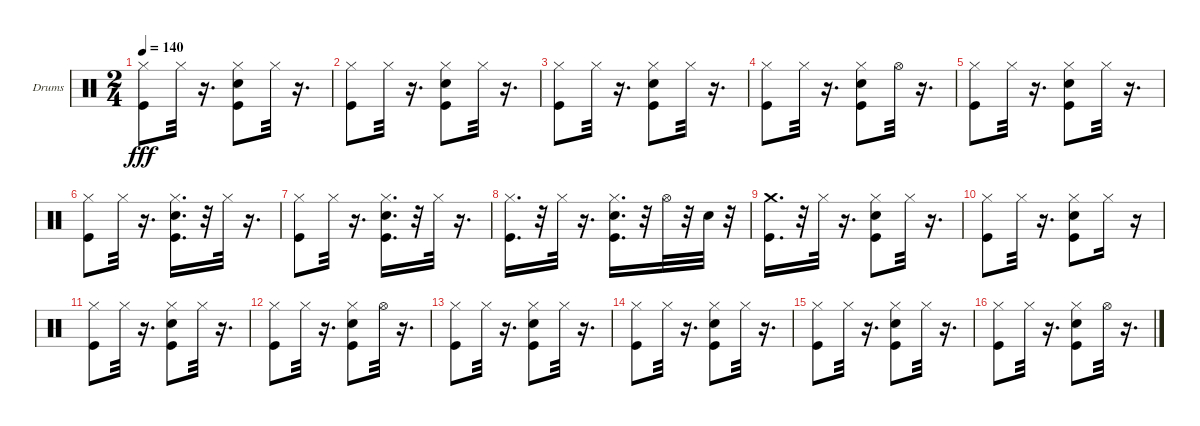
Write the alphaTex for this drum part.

\bracketExtendMode groupsimilarinstruments
\firstSystemTrackNameOrientation horizontal
\otherSystemsTrackNameOrientation horizontal
\track ("Ударные" "Drums") {instrument percussion}
\staff {score}
\articulation defaults
\ts (2 4)
\tempo 140
\clef neutral
\ks c
("Kick (hit)" "Hi-Hat (closed)").8{dy fff} "Hi-Hat (closed)".32 r.16{d} ("Snare (hit) 2" "Kick (hit)" "Hi-Hat (closed)").8 "Hi-Hat (closed)".32 r.16{d} |
("Kick (hit)" "Hi-Hat (closed)").8 "Hi-Hat (closed)".32 r.16{d} ("Kick (hit)" "Hi-Hat (closed)" "Snare (hit) 2").8 "Hi-Hat (closed)".32 r.16{d} |
("Kick (hit)" "Hi-Hat (closed)").8 "Hi-Hat (closed)".32 r.16{d} ("Kick (hit)" "Hi-Hat (closed)" "Snare (hit) 2").8 "Hi-Hat (closed)".32 r.16{d} |
("Kick (hit)" "Hi-Hat (closed)").8 "Hi-Hat (closed)".32 r.16{d} ("Snare (hit) 2" "Kick (hit)" "Hi-Hat (closed)").8 "Hi-Hat (open)".32 r.16{d} |
("Kick (hit)" "Hi-Hat (closed)").8 "Hi-Hat (closed)".32 r.16{d} ("Snare (hit) 2" "Kick (hit)" "Hi-Hat (closed)").8 "Hi-Hat (closed)".32 r.16{d} |
("Kick (hit)" "Hi-Hat (closed)").8 "Hi-Hat (closed)".32 r.16{d} ("Snare (hit) 2" "Kick (hit)" "Hi-Hat (closed)").16{d} r.32 "Hi-Hat (closed)".32 r.16{d} |
("Kick (hit)" "Hi-Hat (closed)").8 "Hi-Hat (closed)".32 r.16{d} ("Snare (hit) 2" "Kick (hit)" "Hi-Hat (closed)").16{d} r.32 "Hi-Hat (closed)".32 r.16{d} |
("Kick (hit)" "Hi-Hat (closed)").16{d} r.32 "Hi-Hat (closed)".32 r.16{d} ("Kick (hit)" "Hi-Hat (closed)" "Snare (hit) 2").16{d} r.32 "Hi-Hat (open)".32 r.32 "Snare (hit) 2".32 r.32 |
("Kick (hit)" "Crash medium (hit)").16{d} r.32 "Hi-Hat (closed)".32 r.16{d} ("Hi-Hat (closed)" "Kick (hit)" "Snare (hit) 2").8 "Hi-Hat (closed)".32 r.16{d} |
("Kick (hit)" "Hi-Hat (closed)").8 "Hi-Hat (closed)".32 r.16{d} ("Snare (hit) 2" "Kick (hit)" "Hi-Hat (closed)").8 "Hi-Hat (closed)".16 r.16 |
("Kick (hit)" "Hi-Hat (closed)").8 "Hi-Hat (closed)".32 r.16{d} ("Hi-Hat (closed)" "Snare (hit) 2" "Kick (hit)").8 "Hi-Hat (closed)".32 r.16{d} |
("Kick (hit)" "Hi-Hat (closed)").8 "Hi-Hat (closed)".32 r.16{d} ("Snare (hit) 2" "Hi-Hat (closed)" "Kick (hit)").8 "Hi-Hat (open)".32 r.16{d} |
("Kick (hit)" "Hi-Hat (closed)").8 "Hi-Hat (closed)".32 r.16{d} ("Snare (hit) 2" "Kick (hit)" "Hi-Hat (closed)").8 "Hi-Hat (closed)".32 r.16{d} |
("Kick (hit)" "Hi-Hat (closed)").8 "Hi-Hat (closed)".32 r.16{d} ("Hi-Hat (closed)" "Snare (hit) 2" "Kick (hit)").8 "Hi-Hat (closed)".32 r.16{d} |
("Kick (hit)" "Hi-Hat (closed)").8 "Hi-Hat (closed)".32 r.16{d} ("Snare (hit) 2" "Kick (hit)" "Hi-Hat (closed)").8 "Hi-Hat (closed)".32 r.16{d} |
("Kick (hit)" "Hi-Hat (closed)").8 "Hi-Hat (closed)".32 r.16{d} ("Kick (hit)" "Snare (hit) 2" "Hi-Hat (closed)").8 "Hi-Hat (open)".32 r.16{d}
